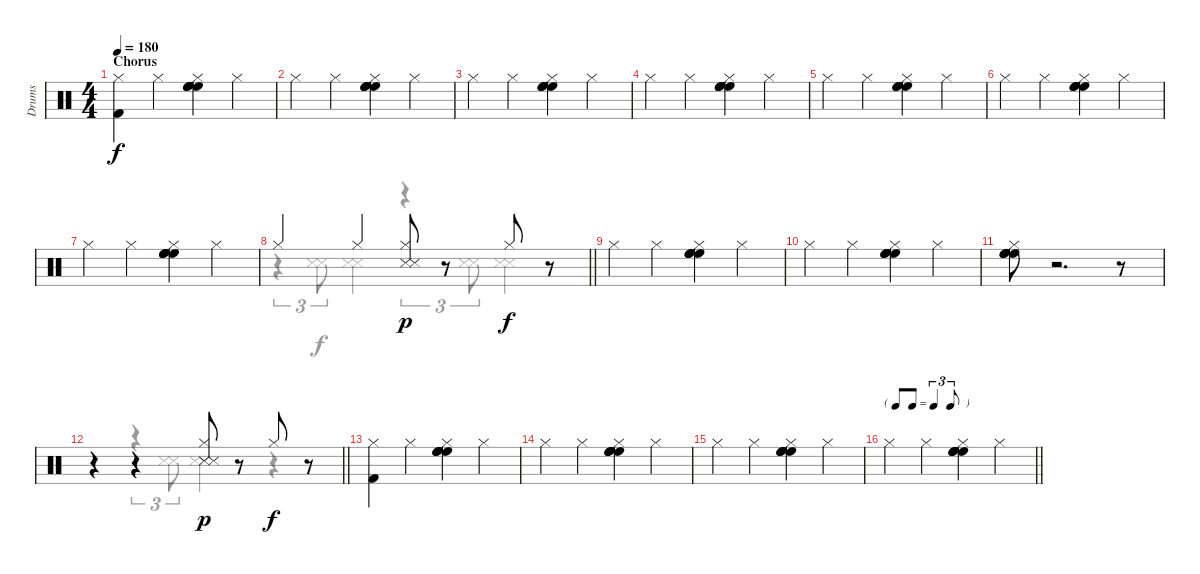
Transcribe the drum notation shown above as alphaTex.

\track ("Drums" "Drums") {instrument percussion}
\staff {score}
\articulation defaults
\voice
\ts (4 4)
\section ("" "Chorus")
\tempo 180
\clef neutral
\ks c
("Kick (hit) 2" "Hi-Hat (closed)").4{dy f} "Hi-Hat (closed)".4 ("High Floor Tom (hit)" "High Floor Tom (hit)" "High Floor Tom (hit)" "High Floor Tom (hit)" "Hi-Hat (closed)").4 "Hi-Hat (closed)".4 |
"Hi-Hat (closed)".4 "Hi-Hat (closed)".4 ("High Floor Tom (hit)" "High Floor Tom (hit)" "High Floor Tom (hit)" "High Floor Tom (hit)" "Hi-Hat (closed)").4 "Hi-Hat (closed)".4 |
"Hi-Hat (closed)".4 "Hi-Hat (closed)".4 ("High Floor Tom (hit)" "High Floor Tom (hit)" "High Floor Tom (hit)" "High Floor Tom (hit)" "Hi-Hat (closed)").4 "Hi-Hat (closed)".4 |
"Hi-Hat (closed)".4 "Hi-Hat (closed)".4 ("High Floor Tom (hit)" "High Floor Tom (hit)" "High Floor Tom (hit)" "High Floor Tom (hit)" "Hi-Hat (closed)").4 "Hi-Hat (closed)".4 |
"Hi-Hat (closed)".4 "Hi-Hat (closed)".4 ("High Floor Tom (hit)" "High Floor Tom (hit)" "High Floor Tom (hit)" "High Floor Tom (hit)" "Hi-Hat (closed)").4 "Hi-Hat (closed)".4 |
"Hi-Hat (closed)".4 "Hi-Hat (closed)".4 ("High Floor Tom (hit)" "High Floor Tom (hit)" "High Floor Tom (hit)" "High Floor Tom (hit)" "Hi-Hat (closed)").4 "Hi-Hat (closed)".4 |
"Hi-Hat (closed)".4 "Hi-Hat (closed)".4 ("High Floor Tom (hit)" "High Floor Tom (hit)" "High Floor Tom (hit)" "High Floor Tom (hit)" "Hi-Hat (closed)").4 "Hi-Hat (closed)".4 |
\barLineRight lightlight "Hi-Hat (closed)".4 "Hi-Hat (closed)".4
("Snare (side stick) 3" "Snare (side stick) 3" "Hi-Hat (closed)").8{dy p} r.8 "Hi-Hat (closed)".8{dy f} r.8 |
"Hi-Hat (closed)".4 "Hi-Hat (closed)".4 ("High Floor Tom (hit)" "High Floor Tom (hit)" "High Floor Tom (hit)" "High Floor Tom (hit)" "Hi-Hat (closed)").4 "Hi-Hat (closed)".4 |
"Hi-Hat (closed)".4 "Hi-Hat (closed)".4 ("High Floor Tom (hit)" "High Floor Tom (hit)" "High Floor Tom (hit)" "High Floor Tom (hit)" "Hi-Hat (closed)").4 "Hi-Hat (closed)".4 |
("High Floor Tom (hit)" "High Floor Tom (hit)" "High Floor Tom (hit)" "High Floor Tom (hit)" "Hi-Hat (closed)").8 r.2{d} r.8 |
\barLineRight lightlight
r.4 r.4 ("Snare (side stick) 3" "Snare (side stick) 3" "Hi-Hat (closed)").8{dy p} r.8 "Hi-Hat (closed)".8{dy f} r.8 |
("Kick (hit) 2" "Hi-Hat (closed)").4 "Hi-Hat (closed)".4 ("High Floor Tom (hit)" "High Floor Tom (hit)" "High Floor Tom (hit)" "High Floor Tom (hit)" "Hi-Hat (closed)").4 "Hi-Hat (closed)".4 |
"Hi-Hat (closed)".4 "Hi-Hat (closed)".4 ("High Floor Tom (hit)" "High Floor Tom (hit)" "High Floor Tom (hit)" "High Floor Tom (hit)" "Hi-Hat (closed)").4 "Hi-Hat (closed)".4 |
"Hi-Hat (closed)".4 "Hi-Hat (closed)".4 ("High Floor Tom (hit)" "High Floor Tom (hit)" "High Floor Tom (hit)" "High Floor Tom (hit)" "Hi-Hat (closed)").4 "Hi-Hat (closed)".4 |
\tf triplet8th
\barLineRight lightlight "Hi-Hat (closed)".4 "Hi-Hat (closed)".4
("High Floor Tom (hit)" "High Floor Tom (hit)" "High Floor Tom (hit)" "High Floor Tom (hit)" "Hi-Hat (closed)").4 "Hi-Hat (closed)".4
\voice
\clef neutral
\ottava regular
\simile none
\ks c
|
|
|
|
|
|
|
\barLineRight lightlight
r.4{tu (3 2)} ("Snare (side stick) 3" "Snare (side stick) 3").8{tu (3 2)} ("Snare (side stick) 3" "Snare (side stick) 3").4 r.4{tu (3 2)} ("Snare (side stick) 3" "Snare (side stick) 3").8{tu (3 2)} ("Snare (side stick) 3" "Snare (side stick) 3").4 |
|
|
|
\barLineRight lightlight
r.4 r.4{tu (3 2)} ("Snare (side stick) 3" "Snare (side stick) 3").8{tu (3 2)} ("Snare (side stick) 3" "Snare (side stick) 3").4 r.4 |
|
|
|
\barLineRight lightlight
